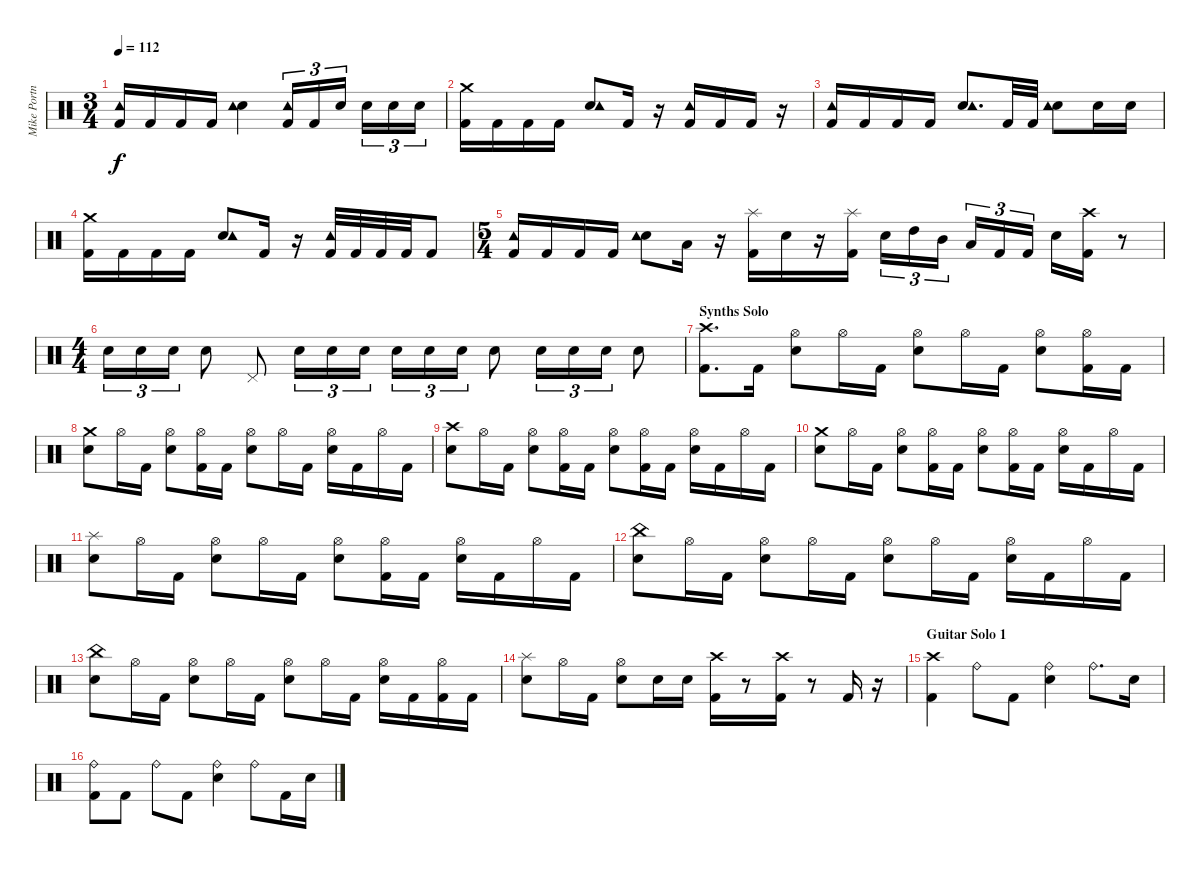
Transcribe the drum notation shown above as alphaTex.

\track ("Mike Portnoy" "Mike Portn") {instrument percussion}
\staff {score}
\articulation defaults
\ts (3 4)
\tempo 112
\clef neutral
\ks c
("Kick (hit) 2" "Tambourine (hit)").16{dy f} "Kick (hit) 2".16 "Kick (hit) 2".16 "Kick (hit) 2".16 ("Electric Snare (hit)" "Tambourine (hit)").4 ("Kick (hit) 2" "Tambourine (hit)").16{tu (3 2)} "Kick (hit) 2".16{tu (3 2)} "Electric Snare (hit)".16{tu (3 2)} "Electric Snare (hit)".16{tu (3 2)} "Electric Snare (hit)".16{tu (3 2)} "Electric Snare (hit)".16{tu (3 2)} |
("Kick (hit) 2" "Crash medium (hit)").16 "Kick (hit) 2".16 "Kick (hit) 2".16 "Kick (hit) 2".16 ("Electric Snare (hit)" "Tambourine (hit)").8 "Kick (hit) 2".16 r.16 ("Kick (hit) 2" "Tambourine (hit)").16 "Kick (hit) 2".16 "Kick (hit) 2".16 r.16 |
("Kick (hit) 2" "Tambourine (hit)").16 "Kick (hit) 2".16 "Kick (hit) 2".16 "Kick (hit) 2".16 ("Electric Snare (hit)" "Tambourine (hit)").8{d} "Kick (hit) 2".32 "Kick (hit) 2".32 ("Electric Snare (hit)" "Tambourine (hit)").8 "Electric Snare (hit)".16 "Electric Snare (hit)".16 |
("Kick (hit) 2" "Crash medium (hit)").16 "Kick (hit) 2".16 "Kick (hit) 2".16 "Kick (hit) 2".16 ("Electric Snare (hit)" "Tambourine (hit)").8 "Kick (hit) 2".16 r.16 ("Kick (hit) 2" "Tambourine (hit)").32 "Kick (hit) 2".32 "Kick (hit) 2".32 "Kick (hit) 2".32 "Kick (hit) 2".8 |
\ts (5 4)
("Kick (hit) 2" "Tambourine (hit)").16 "Kick (hit) 2".16 "Kick (hit) 2".16 "Kick (hit) 2".16 ("Electric Snare (hit)" "Tambourine (hit)").8 "Low Tom (hit)".16 r.16 ("Kick (hit) 2" "Splash (hit)").16 "Electric Snare (hit)".16 r.16 ("Kick (hit) 2" "Splash (hit)").16 "Electric Snare (hit)".16{tu (3 2)} "High Tom (hit)".16{tu (3 2)} "Mid Tom (hit)".16{tu (3 2)} "Low Tom (hit)".16{tu (3 2)} "Kick (hit) 2".16{tu (3 2)} "Kick (hit) 2".16{tu (3 2)} "Electric Snare (hit)".16 ("Kick (hit) 2" "Crash high (hit)").16 r.8 |
\ts (4 4)
"Electric Snare (hit)".16{tu (3 2)} "Electric Snare (hit)".16{tu (3 2)} "Electric Snare (hit)".16{tu (3 2)} "Electric Snare (hit)".8 "Pedal Hi-Hat (hit)".8 "Electric Snare (hit)".16{tu (3 2)} "Electric Snare (hit)".16{tu (3 2)} "Electric Snare (hit)".16{tu (3 2)} "Electric Snare (hit)".16{tu (3 2)} "Electric Snare (hit)".16{tu (3 2)} "Electric Snare (hit)".16{tu (3 2)} "Electric Snare (hit)".8 "Electric Snare (hit)".16{tu (3 2)} "Electric Snare (hit)".16{tu (3 2)} "Electric Snare (hit)".16{tu (3 2)} "Electric Snare (hit)".8 |
\section ("" "Synths Solo")
("Kick (hit) 2" "Crash high (hit)").8{d} "Kick (hit) 2".16 ("Electric Snare (hit)" "Hi-Hat (open)").8 "Hi-Hat (open)".16 "Kick (hit) 2".16 ("Electric Snare (hit)" "Hi-Hat (open)").8 "Hi-Hat (open)".16 "Kick (hit) 2".16 ("Electric Snare (hit)" "Hi-Hat (open)").8 ("Kick (hit) 2" "Hi-Hat (open)").16 "Kick (hit) 2".16 |
("Electric Snare (hit)" "Crash medium (hit)").8 "Hi-Hat (open)".16 "Kick (hit) 2".16 ("Electric Snare (hit)" "Hi-Hat (open)").8 ("Kick (hit) 2" "Hi-Hat (open)").16 "Kick (hit) 2".16 ("Electric Snare (hit)" "Hi-Hat (open)").8 "Hi-Hat (open)".16 "Kick (hit) 2".16 ("Electric Snare (hit)" "Hi-Hat (open)").16 "Kick (hit) 2".16 "Hi-Hat (open)".16 "Kick (hit) 2".16 |
("Electric Snare (hit)" "Crash high (hit)").8 "Hi-Hat (open)".16 "Kick (hit) 2".16 ("Electric Snare (hit)" "Hi-Hat (open)").8 ("Kick (hit) 2" "Hi-Hat (open)").16 "Kick (hit) 2".16 ("Electric Snare (hit)" "Hi-Hat (open)").8 ("Kick (hit) 2" "Hi-Hat (open)").16 "Kick (hit) 2".16 ("Electric Snare (hit)" "Hi-Hat (open)").16 "Kick (hit) 2".16 "Hi-Hat (open)".16 "Kick (hit) 2".16 |
("Electric Snare (hit)" "Crash medium (hit)").8 "Hi-Hat (open)".16 "Kick (hit) 2".16 ("Electric Snare (hit)" "Hi-Hat (open)").8 ("Kick (hit) 2" "Hi-Hat (open)").16 "Kick (hit) 2".16 ("Electric Snare (hit)" "Hi-Hat (open)").8 ("Kick (hit) 2" "Hi-Hat (open)").16 "Kick (hit) 2".16 ("Electric Snare (hit)" "Hi-Hat (open)").16 "Kick (hit) 2".16 "Hi-Hat (open)".16 "Kick (hit) 2".16 |
("Electric Snare (hit)" "Splash (hit)").8 "Hi-Hat (open)".16 "Kick (hit) 2".16 ("Electric Snare (hit)" "Hi-Hat (open)").8 "Hi-Hat (open)".16 "Kick (hit) 2".16 ("Electric Snare (hit)" "Hi-Hat (open)").8 ("Kick (hit) 2" "Hi-Hat (open)").16 "Kick (hit) 2".16 ("Electric Snare (hit)" "Hi-Hat (open)").16 "Kick (hit) 2".16 "Hi-Hat (open)".16 "Kick (hit) 2".16 |
("Electric Snare (hit)" "China (hit)").8 "Hi-Hat (open)".16 "Kick (hit) 2".16 ("Electric Snare (hit)" "Hi-Hat (open)").8 "Hi-Hat (open)".16 "Kick (hit) 2".16 ("Electric Snare (hit)" "Hi-Hat (open)").8 "Hi-Hat (open)".16 "Kick (hit) 2".16 ("Electric Snare (hit)" "Hi-Hat (open)").16 "Kick (hit) 2".16 "Hi-Hat (open)".16 "Kick (hit) 2".16 |
("Electric Snare (hit)" "China (hit)").8 "Hi-Hat (open)".16 "Kick (hit) 2".16 ("Electric Snare (hit)" "Hi-Hat (open)").8 "Hi-Hat (open)".16 "Kick (hit) 2".16 ("Electric Snare (hit)" "Hi-Hat (open)").8 "Hi-Hat (open)".16 "Kick (hit) 2".16 ("Electric Snare (hit)" "Hi-Hat (open)").16 "Kick (hit) 2".16 ("Kick (hit) 2" "Hi-Hat (open)").16 "Kick (hit) 2".16 |
("Electric Snare (hit)" "Splash (hit)").8 "Hi-Hat (open)".16 "Kick (hit) 2".16 ("Electric Snare (hit)" "Hi-Hat (open)").8 "Electric Snare (hit)".16 "Electric Snare (hit)".16 ("Kick (hit) 2" "Crash high (hit)").16 r.8 ("Kick (hit) 2" "Crash high (hit)").16 r.8 "Kick (hit) 2".16 r.16 |
\section ("" "Guitar Solo 1")
("Kick (hit) 2" "Crash high (hit)").4 "Ride (bell)".8 "Kick (hit) 2".8 ("Electric Snare (hit)" "Ride (bell)").4 "Ride (bell)".8{d} "Electric Snare (hit)".16 |
("Kick (hit) 2" "Ride (bell)").8 "Kick (hit) 2".8 "Ride (bell)".8 "Kick (hit) 2".8 ("Electric Snare (hit)" "Ride (bell)").4 "Ride (bell)".8 "Kick (hit) 2".16 "Electric Snare (hit)".16
